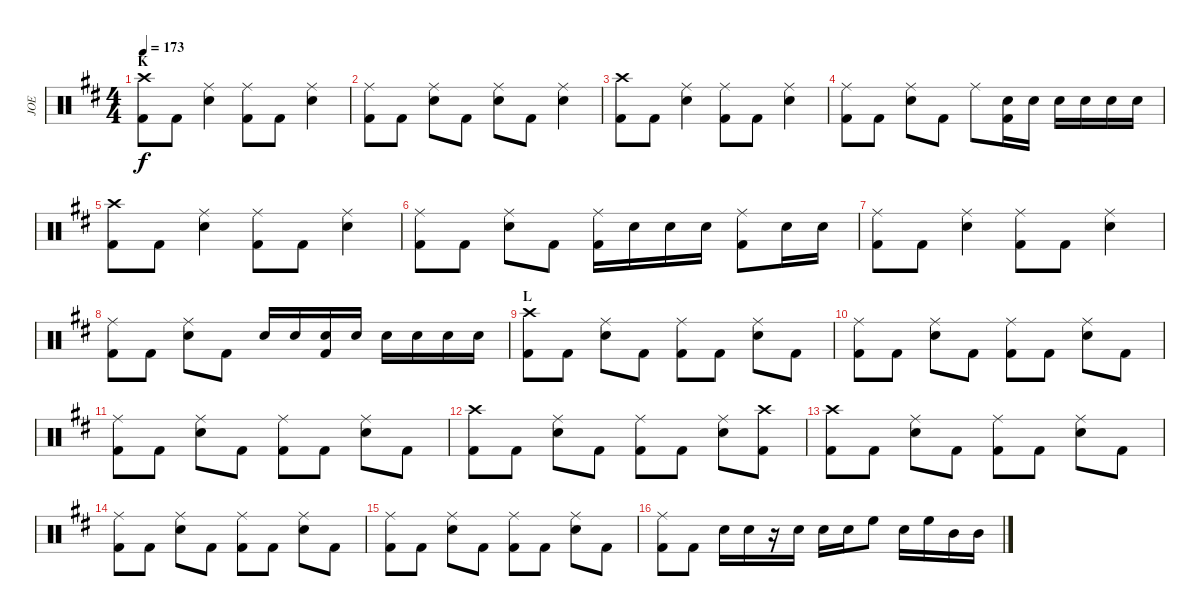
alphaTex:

\track ("JOE" "JOE") {instrument percussion}
\staff {score}
\articulation defaults
\ts (4 4)
\section ("" "K")
\tempo 173
\clef neutral
\ks bminor
("Crash high (hit)" "Kick (hit) 2").8{dy f} "Kick (hit) 2".8 ("Ride (middle)" "Snare (hit) 2").4 ("Ride (middle)" "Kick (hit) 2").8 "Kick (hit) 2".8 ("Ride (middle)" "Snare (hit) 2").4 |
("Ride (middle)" "Kick (hit) 2").8 "Kick (hit) 2".8 ("Ride (middle)" "Snare (hit) 2").8 "Kick (hit) 2".8 ("Ride (middle)" "Snare (hit) 2").8 "Kick (hit) 2".8 ("Ride (middle)" "Snare (hit) 2").4 |
("Crash high (hit)" "Kick (hit) 2").8 "Kick (hit) 2".8 ("Ride (middle)" "Snare (hit) 2").4 ("Ride (middle)" "Kick (hit) 2").8 "Kick (hit) 2".8 ("Ride (middle)" "Snare (hit) 2").4 |
("Ride (middle)" "Kick (hit) 2").8 "Kick (hit) 2".8 ("Ride (middle)" "Snare (hit) 2").8 "Kick (hit) 2".8 "Ride (middle)".8 ("Snare (hit) 2" "Kick (hit) 2").16 "Snare (hit) 2".16 "Snare (hit) 2".16 "Snare (hit) 2".16 "Snare (hit) 2".16 "Snare (hit) 2".16 |
("Crash high (hit)" "Kick (hit) 2").8 "Kick (hit) 2".8 ("Ride (middle)" "Snare (hit) 2").4 ("Ride (middle)" "Kick (hit) 2").8 "Kick (hit) 2".8 ("Ride (middle)" "Snare (hit) 2").4 |
("Ride (middle)" "Kick (hit) 2").8 "Kick (hit) 2".8 ("Ride (middle)" "Snare (hit) 2").8 "Kick (hit) 2".8 ("Ride (middle)" "Kick (hit) 2").16 "Snare (hit) 2".16 "Snare (hit) 2".16 "Snare (hit) 2".16 ("Ride (middle)" "Kick (hit) 2").8 "Snare (hit) 2".16 "Snare (hit) 2".16 |
("Ride (middle)" "Kick (hit) 2").8 "Kick (hit) 2".8 ("Ride (middle)" "Snare (hit) 2").4 ("Ride (middle)" "Kick (hit) 2").8 "Kick (hit) 2".8 ("Ride (middle)" "Snare (hit) 2").4 |
("Ride (middle)" "Kick (hit) 2").8 "Kick (hit) 2".8 ("Ride (middle)" "Snare (hit) 2").8 "Kick (hit) 2".8 "Snare (hit) 2".16 "Snare (hit) 2".16 ("Snare (hit) 2" "Kick (hit) 2").16 "Snare (hit) 2".16 "Snare (hit) 2".16 "Snare (hit) 2".16 "Snare (hit) 2".16 "Snare (hit) 2".16 |
\section ("" "L")
("Crash high (hit)" "Kick (hit) 2").8 "Kick (hit) 2".8 ("Ride (middle)" "Snare (hit) 2").8 "Kick (hit) 2".8 ("Ride (middle)" "Kick (hit) 2").8 "Kick (hit) 2".8 ("Ride (middle)" "Snare (hit) 2").8 "Kick (hit) 2".8 |
("Ride (middle)" "Kick (hit) 2").8 "Kick (hit) 2".8 ("Ride (middle)" "Snare (hit) 2").8 "Kick (hit) 2".8 ("Ride (middle)" "Kick (hit) 2").8 "Kick (hit) 2".8 ("Ride (middle)" "Snare (hit) 2").8 "Kick (hit) 2".8 |
("Ride (middle)" "Kick (hit) 2").8 "Kick (hit) 2".8 ("Ride (middle)" "Snare (hit) 2").8 "Kick (hit) 2".8 ("Ride (middle)" "Kick (hit) 2").8 "Kick (hit) 2".8 ("Ride (middle)" "Snare (hit) 2").8 "Kick (hit) 2".8 |
("Crash high (hit)" "Kick (hit) 2").8 "Kick (hit) 2".8 ("Ride (middle)" "Snare (hit) 2").8 "Kick (hit) 2".8 ("Ride (middle)" "Kick (hit) 2").8 "Kick (hit) 2".8 ("Ride (middle)" "Snare (hit) 2").8 ("Crash high (hit)" "Kick (hit) 2").8 |
("Crash high (hit)" "Kick (hit) 2").8 "Kick (hit) 2".8 ("Ride (middle)" "Snare (hit) 2").8 "Kick (hit) 2".8 ("Ride (middle)" "Kick (hit) 2").8 "Kick (hit) 2".8 ("Ride (middle)" "Snare (hit) 2").8 "Kick (hit) 2".8 |
("Ride (middle)" "Kick (hit) 2").8 "Kick (hit) 2".8 ("Ride (middle)" "Snare (hit) 2").8 "Kick (hit) 2".8 ("Ride (middle)" "Kick (hit) 2").8 "Kick (hit) 2".8 ("Ride (middle)" "Snare (hit) 2").8 "Kick (hit) 2".8 |
("Ride (middle)" "Kick (hit) 2").8 "Kick (hit) 2".8 ("Ride (middle)" "Snare (hit) 2").8 "Kick (hit) 2".8 ("Ride (middle)" "Kick (hit) 2").8 "Kick (hit) 2".8 ("Ride (middle)" "Snare (hit) 2").8 "Kick (hit) 2".8 |
("Ride (middle)" "Kick (hit) 2").8 "Kick (hit) 2".8 "Snare (hit) 2".16 "Snare (hit) 2".16 r.16 "Snare (hit) 2".16 "Snare (hit) 2".16 "Snare (hit) 2".16 "High Floor Tom (hit)".8 "Snare (hit) 2".16 "High Floor Tom (hit)".16 "Mid Tom (hit)".16 "Mid Tom (hit)".16
